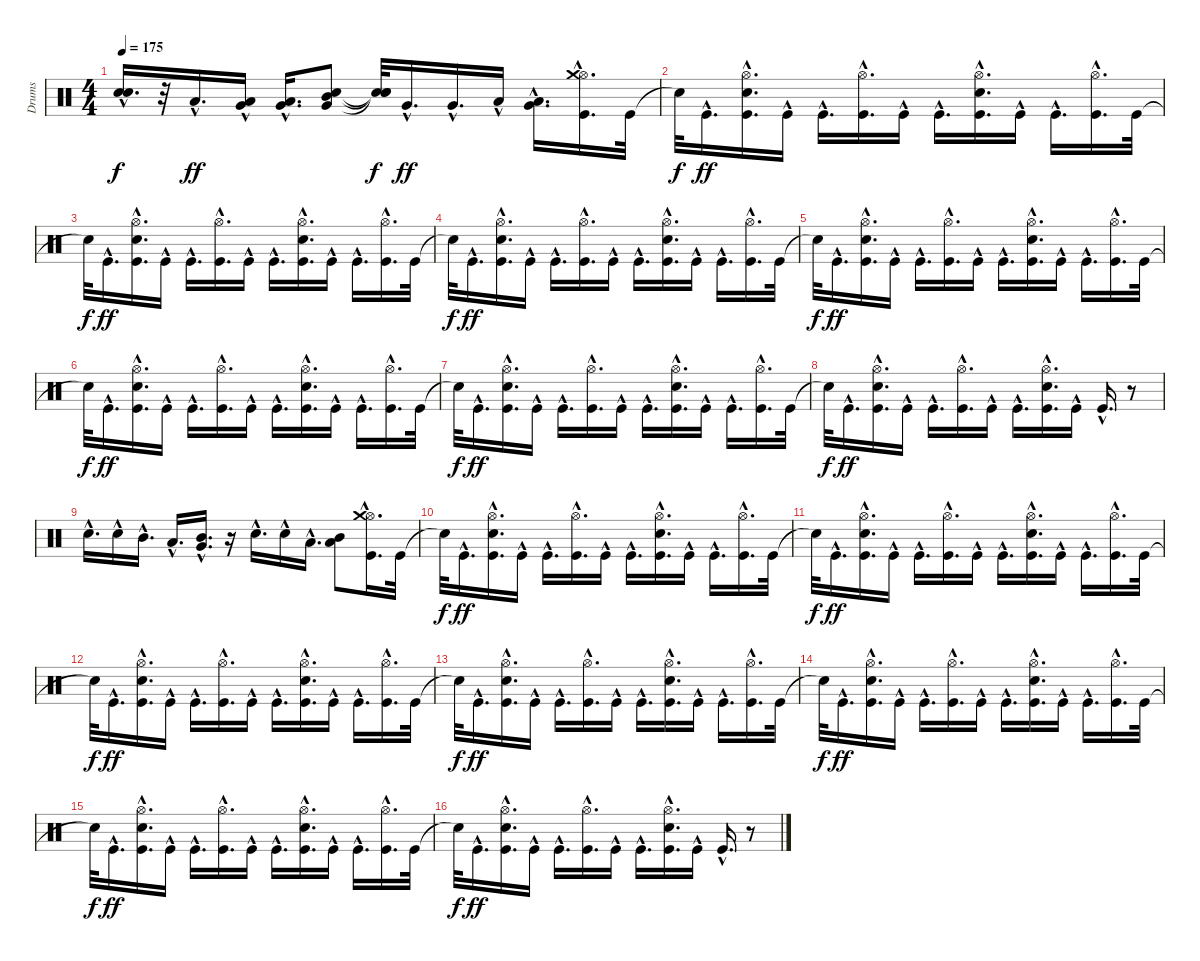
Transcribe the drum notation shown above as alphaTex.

\track ("Drums" "Drums") {instrument percussion}
\staff {score}
\articulation defaults
\ts (4 4)
\tempo 175
\clef neutral
\ks c
("Snare (hit)"{hac t} "Snare (hit)"{hac t}).16{d dy f} r.32 "Low Tom (hit)"{hac}.16{d dy ff} ("Very Low Tom (hit)"{hac} "Low Tom (hit)"{hac}).16 ("Very Low Tom (hit)"{hac} "Low Tom (hit)"{hac}).16{d} ("Electric Snare (hit)" "Very Low Tom (hit)" "Mid Tom (hit)").8 ("Snare (hit)"{t} "Snare (hit)"{t} "Snare (hit)"{t}).32{dy f} "Very Low Tom (hit)"{hac}.16{d dy ff} "Very Low Tom (hit)"{hac}.16{d} "Low Tom (hit)"{hac}.16 ("Very Low Tom (hit)"{hac} "Low Tom (hit)"{hac}).16{d} ("Kick (hit)"{hac} "Hi-Hat (open)"{hac} "Crash medium (hit)"{hac}).16{d} "Kick (hit)".32 |
"Snare (hit)"{t}.32{dy f} "Kick (hit)"{hac}.16{d dy ff} ("Kick (hit)"{hac} "Electric Snare (hit)"{hac} "Hi-Hat (open)"{hac}).16{d} "Kick (hit)"{hac}.16 "Kick (hit)"{hac}.16{d} ("Kick (hit)"{hac} "Hi-Hat (open)"{hac}).16{d} "Kick (hit)"{hac}.16 "Kick (hit)"{hac}.16{d} ("Kick (hit)"{hac} "Electric Snare (hit)"{hac} "Hi-Hat (open)"{hac}).16{d} "Kick (hit)"{hac}.16 "Kick (hit)"{hac}.16{d} ("Kick (hit)"{hac} "Hi-Hat (open)"{hac}).16{d} "Kick (hit)".32 |
"Snare (hit)"{t}.32{dy f} "Kick (hit)"{hac}.16{d dy ff} ("Kick (hit)"{hac} "Electric Snare (hit)"{hac} "Hi-Hat (open)"{hac}).16{d} "Kick (hit)"{hac}.16 "Kick (hit)"{hac}.16{d} ("Kick (hit)"{hac} "Hi-Hat (open)"{hac}).16{d} "Kick (hit)"{hac}.16 "Kick (hit)"{hac}.16{d} ("Kick (hit)"{hac} "Electric Snare (hit)"{hac} "Hi-Hat (open)"{hac}).16{d} "Kick (hit)"{hac}.16 "Kick (hit)"{hac}.16{d} ("Kick (hit)"{hac} "Hi-Hat (open)"{hac}).16{d} "Kick (hit)".32 |
"Snare (hit)"{t}.32{dy f} "Kick (hit)"{hac}.16{d dy ff} ("Kick (hit)"{hac} "Electric Snare (hit)"{hac} "Hi-Hat (open)"{hac}).16{d} "Kick (hit)"{hac}.16 "Kick (hit)"{hac}.16{d} ("Kick (hit)"{hac} "Hi-Hat (open)"{hac}).16{d} "Kick (hit)"{hac}.16 "Kick (hit)"{hac}.16{d} ("Kick (hit)"{hac} "Electric Snare (hit)"{hac} "Hi-Hat (open)"{hac}).16{d} "Kick (hit)"{hac}.16 "Kick (hit)"{hac}.16{d} ("Kick (hit)"{hac} "Hi-Hat (open)"{hac}).16{d} "Kick (hit)".32 |
"Snare (hit)"{t}.32{dy f} "Kick (hit)"{hac}.16{d dy ff} ("Kick (hit)"{hac} "Electric Snare (hit)"{hac} "Hi-Hat (open)"{hac}).16{d} "Kick (hit)"{hac}.16 "Kick (hit)"{hac}.16{d} ("Kick (hit)"{hac} "Hi-Hat (open)"{hac}).16{d} "Kick (hit)"{hac}.16 "Kick (hit)"{hac}.16{d} ("Kick (hit)"{hac} "Electric Snare (hit)"{hac} "Hi-Hat (open)"{hac}).16{d} "Kick (hit)"{hac}.16 "Kick (hit)"{hac}.16{d} ("Kick (hit)"{hac} "Hi-Hat (open)"{hac}).16{d} "Kick (hit)".32 |
"Snare (hit)"{t}.32{dy f} "Kick (hit)"{hac}.16{d dy ff} ("Kick (hit)"{hac} "Electric Snare (hit)"{hac} "Hi-Hat (open)"{hac}).16{d} "Kick (hit)"{hac}.16 "Kick (hit)"{hac}.16{d} ("Kick (hit)"{hac} "Hi-Hat (open)"{hac}).16{d} "Kick (hit)"{hac}.16 "Kick (hit)"{hac}.16{d} ("Kick (hit)"{hac} "Electric Snare (hit)"{hac} "Hi-Hat (open)"{hac}).16{d} "Kick (hit)"{hac}.16 "Kick (hit)"{hac}.16{d} ("Kick (hit)"{hac} "Hi-Hat (open)"{hac}).16{d} "Kick (hit)".32 |
"Snare (hit)"{t}.32{dy f} "Kick (hit)"{hac}.16{d dy ff} ("Kick (hit)"{hac} "Electric Snare (hit)"{hac} "Hi-Hat (open)"{hac}).16{d} "Kick (hit)"{hac}.16 "Kick (hit)"{hac}.16{d} ("Kick (hit)"{hac} "Hi-Hat (open)"{hac}).16{d} "Kick (hit)"{hac}.16 "Kick (hit)"{hac}.16{d} ("Kick (hit)"{hac} "Electric Snare (hit)"{hac} "Hi-Hat (open)"{hac}).16{d} "Kick (hit)"{hac}.16 "Kick (hit)"{hac}.16{d} ("Kick (hit)"{hac} "Hi-Hat (open)"{hac}).16{d} "Kick (hit)".32 |
"Snare (hit)"{t}.32{dy f} "Kick (hit)"{hac}.16{d dy ff} ("Kick (hit)"{hac} "Electric Snare (hit)"{hac} "Hi-Hat (open)"{hac}).16{d} "Kick (hit)"{hac}.16 "Kick (hit)"{hac}.16{d} ("Kick (hit)"{hac} "Hi-Hat (open)"{hac}).16{d} "Kick (hit)"{hac}.16 "Kick (hit)"{hac}.16{d} ("Kick (hit)"{hac} "Electric Snare (hit)"{hac} "Hi-Hat (open)"{hac}).16{d} "Kick (hit)"{hac}.16 "Kick (hit)"{hac}.16{d} r.8 |
"Electric Snare (hit)"{hac}.16{d} "Electric Snare (hit)"{hac}.16 "Mid Tom (hit)"{hac}.16{d} "Low Tom (hit)"{hac}.16{d} ("Very Low Tom (hit)"{hac} "Mid Tom (hit)"{hac}).16{d} r.16 "Electric Snare (hit)"{hac}.16{d} "Electric Snare (hit)"{hac}.16 "Low Tom (hit)"{hac}.16{d} ("Low Floor Tom (hit)" "Mid Tom (hit)").8 ("Kick (hit)"{hac} "Hi-Hat (open)"{hac} "Crash medium (hit)"{hac}).16{d} "Kick (hit)".32 |
"Snare (hit)"{t}.32{dy f} "Kick (hit)"{hac}.16{d dy ff} ("Kick (hit)"{hac} "Electric Snare (hit)"{hac} "Hi-Hat (open)"{hac}).16{d} "Kick (hit)"{hac}.16 "Kick (hit)"{hac}.16{d} ("Kick (hit)"{hac} "Hi-Hat (open)"{hac}).16{d} "Kick (hit)"{hac}.16 "Kick (hit)"{hac}.16{d} ("Kick (hit)"{hac} "Electric Snare (hit)"{hac} "Hi-Hat (open)"{hac}).16{d} "Kick (hit)"{hac}.16 "Kick (hit)"{hac}.16{d} ("Kick (hit)"{hac} "Hi-Hat (open)"{hac}).16{d} "Kick (hit)".32 |
"Snare (hit)"{t}.32{dy f} "Kick (hit)"{hac}.16{d dy ff} ("Kick (hit)"{hac} "Electric Snare (hit)"{hac} "Hi-Hat (open)"{hac}).16{d} "Kick (hit)"{hac}.16 "Kick (hit)"{hac}.16{d} ("Kick (hit)"{hac} "Hi-Hat (open)"{hac}).16{d} "Kick (hit)"{hac}.16 "Kick (hit)"{hac}.16{d} ("Kick (hit)"{hac} "Electric Snare (hit)"{hac} "Hi-Hat (open)"{hac}).16{d} "Kick (hit)"{hac}.16 "Kick (hit)"{hac}.16{d} ("Kick (hit)"{hac} "Hi-Hat (open)"{hac}).16{d} "Kick (hit)".32 |
"Snare (hit)"{t}.32{dy f} "Kick (hit)"{hac}.16{d dy ff} ("Kick (hit)"{hac} "Electric Snare (hit)"{hac} "Hi-Hat (open)"{hac}).16{d} "Kick (hit)"{hac}.16 "Kick (hit)"{hac}.16{d} ("Kick (hit)"{hac} "Hi-Hat (open)"{hac}).16{d} "Kick (hit)"{hac}.16 "Kick (hit)"{hac}.16{d} ("Kick (hit)"{hac} "Electric Snare (hit)"{hac} "Hi-Hat (open)"{hac}).16{d} "Kick (hit)"{hac}.16 "Kick (hit)"{hac}.16{d} ("Kick (hit)"{hac} "Hi-Hat (open)"{hac}).16{d} "Kick (hit)".32 |
"Snare (hit)"{t}.32{dy f} "Kick (hit)"{hac}.16{d dy ff} ("Kick (hit)"{hac} "Electric Snare (hit)"{hac} "Hi-Hat (open)"{hac}).16{d} "Kick (hit)"{hac}.16 "Kick (hit)"{hac}.16{d} ("Kick (hit)"{hac} "Hi-Hat (open)"{hac}).16{d} "Kick (hit)"{hac}.16 "Kick (hit)"{hac}.16{d} ("Kick (hit)"{hac} "Electric Snare (hit)"{hac} "Hi-Hat (open)"{hac}).16{d} "Kick (hit)"{hac}.16 "Kick (hit)"{hac}.16{d} ("Kick (hit)"{hac} "Hi-Hat (open)"{hac}).16{d} "Kick (hit)".32 |
"Snare (hit)"{t}.32{dy f} "Kick (hit)"{hac}.16{d dy ff} ("Kick (hit)"{hac} "Electric Snare (hit)"{hac} "Hi-Hat (open)"{hac}).16{d} "Kick (hit)"{hac}.16 "Kick (hit)"{hac}.16{d} ("Kick (hit)"{hac} "Hi-Hat (open)"{hac}).16{d} "Kick (hit)"{hac}.16 "Kick (hit)"{hac}.16{d} ("Kick (hit)"{hac} "Electric Snare (hit)"{hac} "Hi-Hat (open)"{hac}).16{d} "Kick (hit)"{hac}.16 "Kick (hit)"{hac}.16{d} ("Kick (hit)"{hac} "Hi-Hat (open)"{hac}).16{d} "Kick (hit)".32 |
"Snare (hit)"{t}.32{dy f} "Kick (hit)"{hac}.16{d dy ff} ("Kick (hit)"{hac} "Electric Snare (hit)"{hac} "Hi-Hat (open)"{hac}).16{d} "Kick (hit)"{hac}.16 "Kick (hit)"{hac}.16{d} ("Kick (hit)"{hac} "Hi-Hat (open)"{hac}).16{d} "Kick (hit)"{hac}.16 "Kick (hit)"{hac}.16{d} ("Kick (hit)"{hac} "Electric Snare (hit)"{hac} "Hi-Hat (open)"{hac}).16{d} "Kick (hit)"{hac}.16 "Kick (hit)"{hac}.16{d} ("Kick (hit)"{hac} "Hi-Hat (open)"{hac}).16{d} "Kick (hit)".32 |
"Snare (hit)"{t}.32{dy f} "Kick (hit)"{hac}.16{d dy ff} ("Kick (hit)"{hac} "Electric Snare (hit)"{hac} "Hi-Hat (open)"{hac}).16{d} "Kick (hit)"{hac}.16 "Kick (hit)"{hac}.16{d} ("Kick (hit)"{hac} "Hi-Hat (open)"{hac}).16{d} "Kick (hit)"{hac}.16 "Kick (hit)"{hac}.16{d} ("Kick (hit)"{hac} "Electric Snare (hit)"{hac} "Hi-Hat (open)"{hac}).16{d} "Kick (hit)"{hac}.16 "Kick (hit)"{hac}.16{d} r.8
